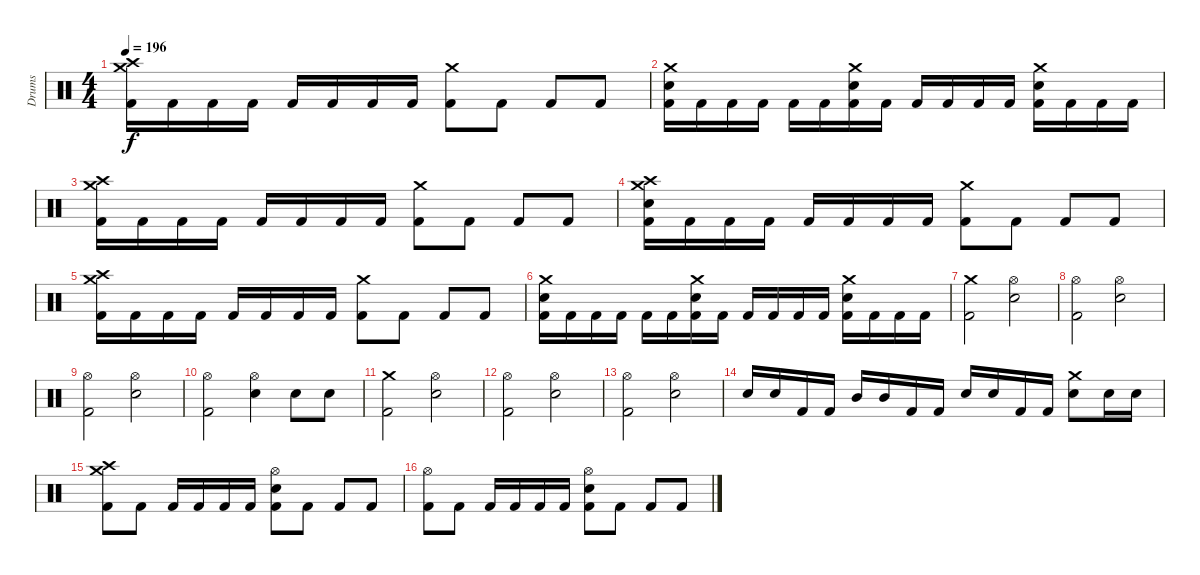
\track ("Drums" "Drums") {instrument percussion}
\staff {score}
\articulation defaults
\ts (4 4)
\tempo 196
\clef neutral
\ks c
("Crash high (hit)" "Crash medium (hit)" "Kick (hit) 2").16{dy f} "Kick (hit) 2".16 "Kick (hit) 2".16 "Kick (hit) 2".16 "Kick (hit) 2".16 "Kick (hit) 2".16 "Kick (hit) 2".16 "Kick (hit) 2".16 ("Crash medium (hit)" "Kick (hit) 2").8 "Kick (hit) 2".8 "Kick (hit) 2".8 "Kick (hit) 2".8 |
("Crash medium (hit)" "Snare (hit) 2" "Kick (hit) 2").16 "Kick (hit) 2".16 "Kick (hit) 2".16 "Kick (hit) 2".16 "Kick (hit) 2".16 "Kick (hit) 2".16 ("Crash medium (hit)" "Snare (hit) 2" "Kick (hit) 2").16 "Kick (hit) 2".16 "Kick (hit) 2".16 "Kick (hit) 2".16 "Kick (hit) 2".16 "Kick (hit) 2".16 ("Crash medium (hit)" "Snare (hit) 2" "Kick (hit) 2").16 "Kick (hit) 2".16 "Kick (hit) 2".16 "Kick (hit) 2".16 |
("Crash high (hit)" "Crash medium (hit)" "Kick (hit) 2").16 "Kick (hit) 2".16 "Kick (hit) 2".16 "Kick (hit) 2".16 "Kick (hit) 2".16 "Kick (hit) 2".16 "Kick (hit) 2".16 "Kick (hit) 2".16 ("Crash medium (hit)" "Kick (hit) 2").8 "Kick (hit) 2".8 "Kick (hit) 2".8 "Kick (hit) 2".8 |
("Crash high (hit)" "Crash medium (hit)" "Snare (hit) 2" "Kick (hit) 2").16 "Kick (hit) 2".16 "Kick (hit) 2".16 "Kick (hit) 2".16 "Kick (hit) 2".16 "Kick (hit) 2".16 "Kick (hit) 2".16 "Kick (hit) 2".16 ("Crash medium (hit)" "Kick (hit) 2").8 "Kick (hit) 2".8 "Kick (hit) 2".8 "Kick (hit) 2".8 |
("Crash high (hit)" "Crash medium (hit)" "Kick (hit) 2").16 "Kick (hit) 2".16 "Kick (hit) 2".16 "Kick (hit) 2".16 "Kick (hit) 2".16 "Kick (hit) 2".16 "Kick (hit) 2".16 "Kick (hit) 2".16 ("Crash medium (hit)" "Kick (hit) 2").8 "Kick (hit) 2".8 "Kick (hit) 2".8 "Kick (hit) 2".8 |
("Crash medium (hit)" "Snare (hit) 2" "Kick (hit) 2").16 "Kick (hit) 2".16 "Kick (hit) 2".16 "Kick (hit) 2".16 "Kick (hit) 2".16 "Kick (hit) 2".16 ("Crash medium (hit)" "Snare (hit) 2" "Kick (hit) 2").16 "Kick (hit) 2".16 "Kick (hit) 2".16 "Kick (hit) 2".16 "Kick (hit) 2".16 "Kick (hit) 2".16 ("Crash medium (hit)" "Snare (hit) 2" "Kick (hit) 2").16 "Kick (hit) 2".16 "Kick (hit) 2".16 "Kick (hit) 2".16 |
("Crash medium (hit)" "Kick (hit) 2").2 ("Hi-Hat (open)" "Snare (hit) 2").2 |
("Hi-Hat (open)" "Kick (hit) 2").2 ("Hi-Hat (open)" "Snare (hit) 2").2 |
("Hi-Hat (open)" "Kick (hit) 2").2 ("Hi-Hat (open)" "Snare (hit) 2").2 |
("Hi-Hat (open)" "Kick (hit) 2").2 ("Hi-Hat (open)" "Snare (hit) 2").4 "Snare (hit) 2".8 "Snare (hit) 2".8 |
("Crash medium (hit)" "Kick (hit) 2").2 ("Hi-Hat (open)" "Snare (hit) 2").2 |
("Hi-Hat (open)" "Kick (hit) 2").2 ("Hi-Hat (open)" "Snare (hit) 2").2 |
("Hi-Hat (open)" "Kick (hit) 2").2 ("Hi-Hat (open)" "Snare (hit) 2").2 |
"Snare (hit) 2".16 "Snare (hit) 2".16 "Kick (hit) 2".16 "Kick (hit) 2".16 "Mid Tom (hit)".16 "Mid Tom (hit)".16 "Kick (hit) 2".16 "Kick (hit) 2".16 "Snare (hit) 2".16 "Snare (hit) 2".16 "Kick (hit) 2".16 "Kick (hit) 2".16 ("Crash medium (hit)" "Snare (hit) 2").8 "Snare (hit) 2".16 "Snare (hit) 2".16 |
("Crash high (hit)" "Crash medium (hit)" "Kick (hit) 2").8 "Kick (hit) 2".8 "Kick (hit) 2".16 "Kick (hit) 2".16 "Kick (hit) 2".16 "Kick (hit) 2".16 ("Hi-Hat (open)" "Snare (hit) 2" "Kick (hit) 2").8 "Kick (hit) 2".8 "Kick (hit) 2".8 "Kick (hit) 2".8 |
("Hi-Hat (open)" "Kick (hit) 2").8 "Kick (hit) 2".8 "Kick (hit) 2".16 "Kick (hit) 2".16 "Kick (hit) 2".16 "Kick (hit) 2".16 ("Hi-Hat (open)" "Snare (hit) 2" "Kick (hit) 2").8 "Kick (hit) 2".8 "Kick (hit) 2".8 "Kick (hit) 2".8
